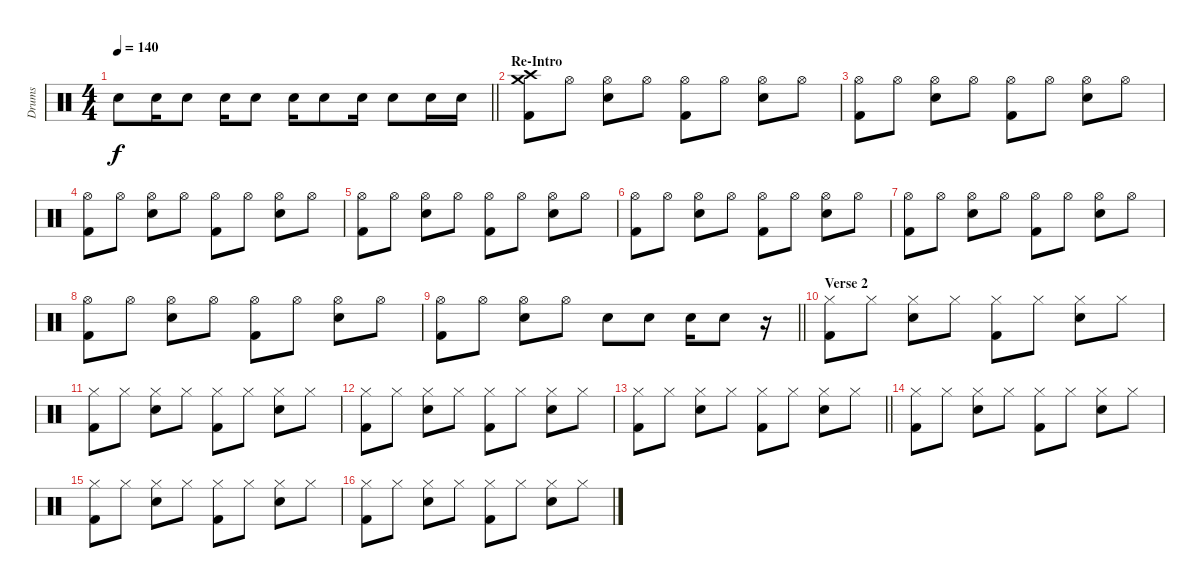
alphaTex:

\track ("Drums" "Drums") {instrument percussion}
\staff {score}
\articulation defaults
\ts (4 4)
\tempo 140
\clef neutral
\barLineRight lightlight
\ks c "Snare (hit) 2".8{dy f} "Snare (hit) 2".16 "Snare (hit) 2".8 "Snare (hit) 2".16 "Snare (hit) 2".8 "Snare (hit) 2".16 "Snare (hit) 2".8 "Snare (hit) 2".16 "Snare (hit) 2".8 "Snare (hit) 2".16 "Snare (hit) 2".16
|
\section ("" "Re-Intro")
("Crash medium (hit)" "Crash high (hit)" "Kick (hit) 2").8 "Hi-Hat (open)".8 ("Hi-Hat (open)" "Snare (hit) 2").8 "Hi-Hat (open)".8 ("Hi-Hat (open)" "Kick (hit) 2").8 "Hi-Hat (open)".8 ("Hi-Hat (open)" "Snare (hit) 2").8 "Hi-Hat (open)".8 |
("Hi-Hat (open)" "Kick (hit) 2").8 "Hi-Hat (open)".8 ("Hi-Hat (open)" "Snare (hit) 2").8 "Hi-Hat (open)".8 ("Hi-Hat (open)" "Kick (hit) 2").8 "Hi-Hat (open)".8 ("Hi-Hat (open)" "Snare (hit) 2").8 "Hi-Hat (open)".8 |
("Hi-Hat (open)" "Kick (hit) 2").8 "Hi-Hat (open)".8 ("Hi-Hat (open)" "Snare (hit) 2").8 "Hi-Hat (open)".8 ("Hi-Hat (open)" "Kick (hit) 2").8 "Hi-Hat (open)".8 ("Hi-Hat (open)" "Snare (hit) 2").8 "Hi-Hat (open)".8 |
("Hi-Hat (open)" "Kick (hit) 2").8 "Hi-Hat (open)".8 ("Hi-Hat (open)" "Snare (hit) 2").8 "Hi-Hat (open)".8 ("Hi-Hat (open)" "Kick (hit) 2").8 "Hi-Hat (open)".8 ("Hi-Hat (open)" "Snare (hit) 2").8 "Hi-Hat (open)".8 |
("Hi-Hat (open)" "Kick (hit) 2").8 "Hi-Hat (open)".8 ("Hi-Hat (open)" "Snare (hit) 2").8 "Hi-Hat (open)".8 ("Hi-Hat (open)" "Kick (hit) 2").8 "Hi-Hat (open)".8 ("Hi-Hat (open)" "Snare (hit) 2").8 "Hi-Hat (open)".8 |
("Hi-Hat (open)" "Kick (hit) 2").8 "Hi-Hat (open)".8 ("Hi-Hat (open)" "Snare (hit) 2").8 "Hi-Hat (open)".8 ("Hi-Hat (open)" "Kick (hit) 2").8 "Hi-Hat (open)".8 ("Hi-Hat (open)" "Snare (hit) 2").8 "Hi-Hat (open)".8 |
("Hi-Hat (open)" "Kick (hit) 2").8 "Hi-Hat (open)".8 ("Hi-Hat (open)" "Snare (hit) 2").8 "Hi-Hat (open)".8 ("Hi-Hat (open)" "Kick (hit) 2").8 "Hi-Hat (open)".8 ("Hi-Hat (open)" "Snare (hit) 2").8 "Hi-Hat (open)".8 |
\barLineRight lightlight
("Hi-Hat (open)" "Kick (hit) 2").8 "Hi-Hat (open)".8 ("Hi-Hat (open)" "Snare (hit) 2").8 "Hi-Hat (open)".8 "Snare (hit) 2".8 "Snare (hit) 2".8 "Snare (hit) 2".16 "Snare (hit) 2".8 r.16 |
\section ("" "Verse 2")
("Hi-Hat (closed)" "Kick (hit) 2").8 "Hi-Hat (closed)".8 ("Hi-Hat (closed)" "Snare (hit) 2").8 "Hi-Hat (closed)".8 ("Hi-Hat (closed)" "Kick (hit) 2").8 "Hi-Hat (closed)".8 ("Hi-Hat (closed)" "Snare (hit) 2").8 "Hi-Hat (closed)".8 |
("Hi-Hat (closed)" "Kick (hit) 2").8 "Hi-Hat (closed)".8 ("Hi-Hat (closed)" "Snare (hit) 2").8 "Hi-Hat (closed)".8 ("Hi-Hat (closed)" "Kick (hit) 2").8 "Hi-Hat (closed)".8 ("Hi-Hat (closed)" "Snare (hit) 2").8 "Hi-Hat (closed)".8 |
("Hi-Hat (closed)" "Kick (hit) 2").8 "Hi-Hat (closed)".8 ("Hi-Hat (closed)" "Snare (hit) 2").8 "Hi-Hat (closed)".8 ("Hi-Hat (closed)" "Kick (hit) 2").8 "Hi-Hat (closed)".8 ("Hi-Hat (closed)" "Snare (hit) 2").8 "Hi-Hat (closed)".8 |
\barLineRight lightlight
("Hi-Hat (closed)" "Kick (hit) 2").8 "Hi-Hat (closed)".8 ("Hi-Hat (closed)" "Snare (hit) 2").8 "Hi-Hat (closed)".8 ("Hi-Hat (closed)" "Kick (hit) 2").8 "Hi-Hat (closed)".8 ("Hi-Hat (closed)" "Snare (hit) 2").8 "Hi-Hat (closed)".8 |
("Hi-Hat (closed)" "Kick (hit) 2").8 "Hi-Hat (closed)".8 ("Hi-Hat (closed)" "Snare (hit) 2").8 "Hi-Hat (closed)".8 ("Hi-Hat (closed)" "Kick (hit) 2").8 "Hi-Hat (closed)".8 ("Hi-Hat (closed)" "Snare (hit) 2").8 "Hi-Hat (closed)".8 |
("Hi-Hat (closed)" "Kick (hit) 2").8 "Hi-Hat (closed)".8 ("Hi-Hat (closed)" "Snare (hit) 2").8 "Hi-Hat (closed)".8 ("Hi-Hat (closed)" "Kick (hit) 2").8 "Hi-Hat (closed)".8 ("Hi-Hat (closed)" "Snare (hit) 2").8 "Hi-Hat (closed)".8 |
("Hi-Hat (closed)" "Kick (hit) 2").8 "Hi-Hat (closed)".8 ("Hi-Hat (closed)" "Snare (hit) 2").8 "Hi-Hat (closed)".8 ("Hi-Hat (closed)" "Kick (hit) 2").8 "Hi-Hat (closed)".8 ("Hi-Hat (closed)" "Snare (hit) 2").8 "Hi-Hat (closed)".8
